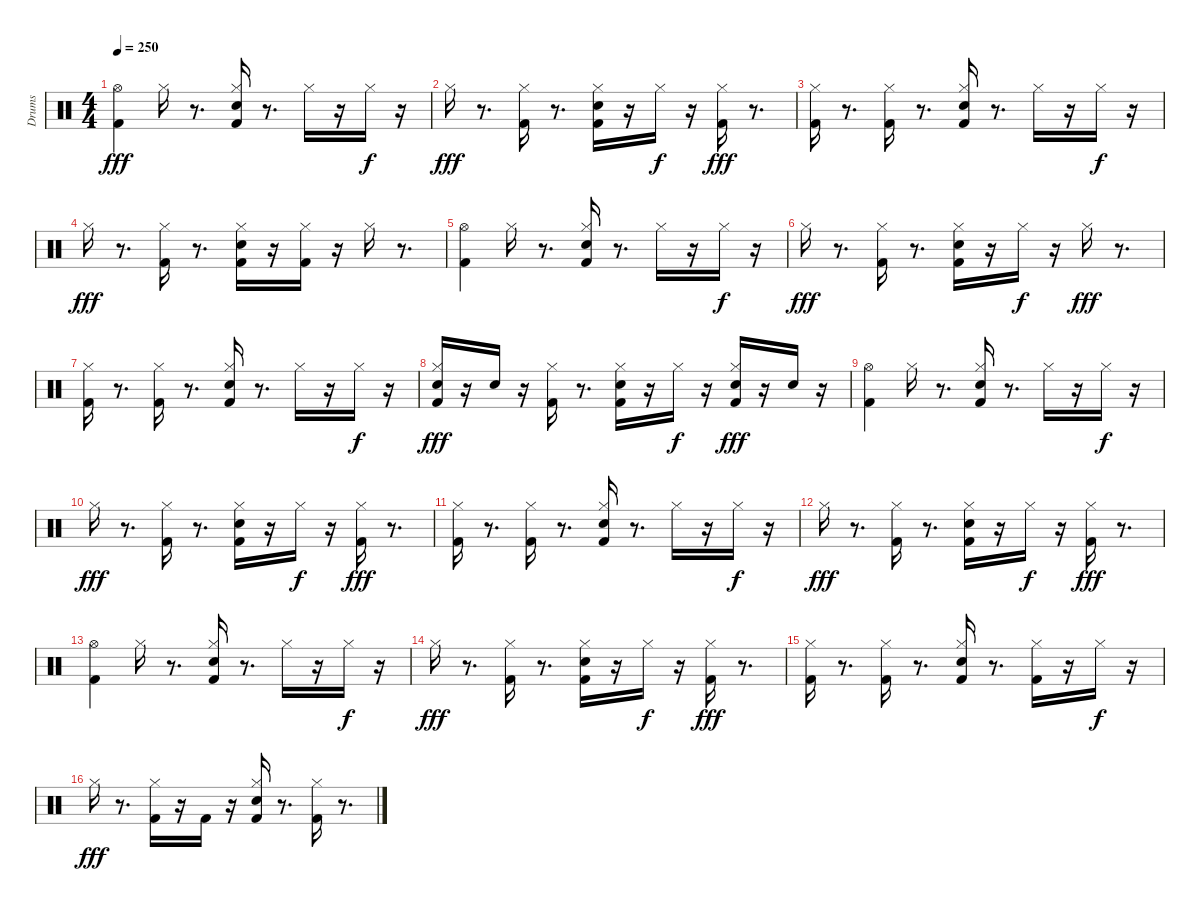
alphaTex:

\track ("Drums" "Drums") {instrument percussion}
\staff {score}
\articulation defaults
\ts (4 4)
\tempo 250
\clef neutral
\ks c
("Hi-Hat (open)" "Kick (hit) 2").4{dy fff} "Hi-Hat (closed)".16 r.8{d} ("Kick (hit) 2" "Electric Snare (hit)" "Hi-Hat (closed)").16 r.8{d} "Hi-Hat (closed)".16 r.16 "Hi-Hat (closed)".16{dy f} r.16 |
"Hi-Hat (closed)".16{dy fff} r.8{d} ("Kick (hit) 2" "Hi-Hat (closed)").16 r.8{d} ("Kick (hit) 2" "Electric Snare (hit)" "Hi-Hat (closed)").16 r.16 "Hi-Hat (closed)".16{dy f} r.16 ("Kick (hit) 2" "Hi-Hat (closed)").16{dy fff} r.8{d} |
("Kick (hit) 2" "Hi-Hat (closed)").16 r.8{d} ("Hi-Hat (closed)" "Kick (hit) 2").16 r.8{d} ("Kick (hit) 2" "Electric Snare (hit)" "Hi-Hat (closed)").16 r.8{d} "Hi-Hat (closed)".16 r.16 "Hi-Hat (closed)".16{dy f} r.16 |
"Hi-Hat (closed)".16{dy fff} r.8{d} ("Kick (hit) 2" "Hi-Hat (closed)").16 r.8{d} ("Kick (hit) 2" "Electric Snare (hit)" "Hi-Hat (closed)").16 r.16 ("Hi-Hat (closed)" "Kick (hit) 2").16 r.16 "Hi-Hat (closed)".16 r.8{d} |
("Kick (hit) 2" "Hi-Hat (open)").4 "Hi-Hat (closed)".16 r.8{d} ("Kick (hit) 2" "Electric Snare (hit)" "Hi-Hat (closed)").16 r.8{d} "Hi-Hat (closed)".16 r.16 "Hi-Hat (closed)".16{dy f} r.16 |
"Hi-Hat (closed)".16{dy fff} r.8{d} ("Kick (hit) 2" "Hi-Hat (closed)").16 r.8{d} ("Kick (hit) 2" "Electric Snare (hit)" "Hi-Hat (closed)").16 r.16 "Hi-Hat (closed)".16{dy f} r.16 "Hi-Hat (closed)".16{dy fff} r.8{d} |
("Kick (hit) 2" "Hi-Hat (closed)").16 r.8{d} ("Hi-Hat (closed)" "Kick (hit) 2").16 r.8{d} ("Kick (hit) 2" "Electric Snare (hit)" "Hi-Hat (closed)").16 r.8{d} "Hi-Hat (closed)".16 r.16 "Hi-Hat (closed)".16{dy f} r.16 |
("Hi-Hat (closed)" "Electric Snare (hit)" "Kick (hit) 2").16{dy fff} r.16 "Electric Snare (hit)".16 r.16 ("Hi-Hat (closed)" "Kick (hit) 2").16 r.8{d} ("Hi-Hat (closed)" "Electric Snare (hit)" "Kick (hit) 2").16 r.16 "Hi-Hat (closed)".16{dy f} r.16 ("Hi-Hat (closed)" "Electric Snare (hit)" "Kick (hit) 2").16{dy fff} r.16 "Electric Snare (hit)".16 r.16 |
("Hi-Hat (open)" "Kick (hit) 2").4 "Hi-Hat (closed)".16 r.8{d} ("Kick (hit) 2" "Electric Snare (hit)" "Hi-Hat (closed)").16 r.8{d} "Hi-Hat (closed)".16 r.16 "Hi-Hat (closed)".16{dy f} r.16 |
"Hi-Hat (closed)".16{dy fff} r.8{d} ("Kick (hit) 2" "Hi-Hat (closed)").16 r.8{d} ("Kick (hit) 2" "Electric Snare (hit)" "Hi-Hat (closed)").16 r.16 "Hi-Hat (closed)".16{dy f} r.16 ("Kick (hit) 2" "Hi-Hat (closed)").16{dy fff} r.8{d} |
("Kick (hit) 2" "Hi-Hat (closed)").16 r.8{d} ("Hi-Hat (closed)" "Kick (hit) 2").16 r.8{d} ("Kick (hit) 2" "Electric Snare (hit)" "Hi-Hat (closed)").16 r.8{d} "Hi-Hat (closed)".16 r.16 "Hi-Hat (closed)".16{dy f} r.16 |
"Hi-Hat (closed)".16{dy fff} r.8{d} ("Kick (hit) 2" "Hi-Hat (closed)").16 r.8{d} ("Kick (hit) 2" "Electric Snare (hit)" "Hi-Hat (closed)").16 r.16 "Hi-Hat (closed)".16{dy f} r.16 ("Hi-Hat (closed)" "Kick (hit) 2").16{dy fff} r.8{d} |
("Hi-Hat (open)" "Kick (hit) 2").4 "Hi-Hat (closed)".16 r.8{d} ("Kick (hit) 2" "Electric Snare (hit)" "Hi-Hat (closed)").16 r.8{d} "Hi-Hat (closed)".16 r.16 "Hi-Hat (closed)".16{dy f} r.16 |
"Hi-Hat (closed)".16{dy fff} r.8{d} ("Kick (hit) 2" "Hi-Hat (closed)").16 r.8{d} ("Kick (hit) 2" "Electric Snare (hit)" "Hi-Hat (closed)").16 r.16 "Hi-Hat (closed)".16{dy f} r.16 ("Kick (hit) 2" "Hi-Hat (closed)").16{dy fff} r.8{d} |
("Kick (hit) 2" "Hi-Hat (closed)").16 r.8{d} ("Hi-Hat (closed)" "Kick (hit) 2").16 r.8{d} ("Kick (hit) 2" "Electric Snare (hit)" "Hi-Hat (closed)").16 r.8{d} ("Hi-Hat (closed)" "Kick (hit) 2").16 r.16 "Hi-Hat (closed)".16{dy f} r.16 |
"Hi-Hat (closed)".16{dy fff} r.8{d} ("Kick (hit) 2" "Hi-Hat (closed)").16 r.16 "Kick (hit) 2".16 r.16 ("Kick (hit) 2" "Electric Snare (hit)" "Hi-Hat (closed)").16 r.8{d} ("Hi-Hat (closed)" "Kick (hit) 2").16 r.8{d}
